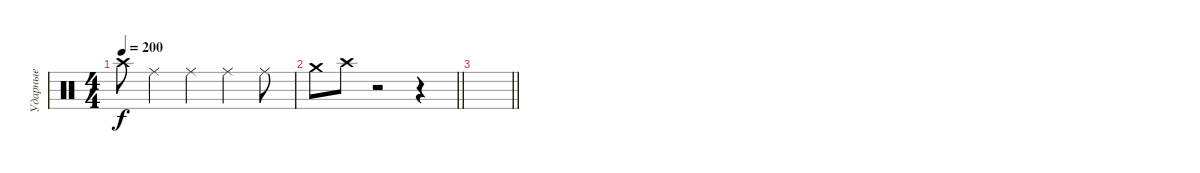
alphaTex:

\track ("Ударные" "Ударные") {instrument percussion}
\staff {score}
\articulation defaults
\ts (4 4)
\tempo 200
\clef neutral
\ks c "Crash high (hit)".8{dy f} "Ride (middle)".4 "Ride (middle)".4 "Ride (middle)".4 "Ride (middle)".8
|
\barLineRight lightlight "Crash medium (hit)".8 "Crash high (hit)".8
r.2 r.4 |
\barLineRight lightlight
